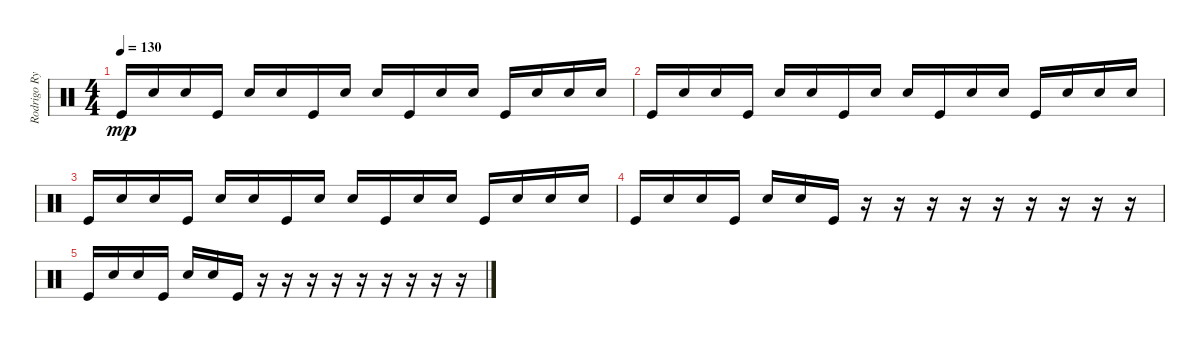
\track ("Rodrigo Rythmics" "Rodrigo Ry") {instrument percussion}
\staff {score}
\articulation defaults
\ts (4 4)
\tempo 130
\clef neutral
\ks c "Kick (hit)".16{dy mp} "Electric Snare (hit)".16 "Electric Snare (hit)".16 "Kick (hit)".16 "Electric Snare (hit)".16 "Electric Snare (hit)".16 "Kick (hit)".16 "Electric Snare (hit)".16 "Electric Snare (hit)".16 "Kick (hit)".16 "Electric Snare (hit)".16 "Electric Snare (hit)".16 "Kick (hit)".16 "Electric Snare (hit)".16 "Electric Snare (hit)".16 "Electric Snare (hit)".16
|
"Kick (hit)".16 "Electric Snare (hit)".16 "Electric Snare (hit)".16 "Kick (hit)".16 "Electric Snare (hit)".16 "Electric Snare (hit)".16 "Kick (hit)".16 "Electric Snare (hit)".16 "Electric Snare (hit)".16 "Kick (hit)".16 "Electric Snare (hit)".16 "Electric Snare (hit)".16 "Kick (hit)".16 "Electric Snare (hit)".16 "Electric Snare (hit)".16 "Electric Snare (hit)".16 |
"Kick (hit)".16 "Electric Snare (hit)".16 "Electric Snare (hit)".16 "Kick (hit)".16 "Electric Snare (hit)".16 "Electric Snare (hit)".16 "Kick (hit)".16 "Electric Snare (hit)".16 "Electric Snare (hit)".16 "Kick (hit)".16 "Electric Snare (hit)".16 "Electric Snare (hit)".16 "Kick (hit)".16 "Electric Snare (hit)".16 "Electric Snare (hit)".16 "Electric Snare (hit)".16 |
"Kick (hit)".16 "Electric Snare (hit)".16 "Electric Snare (hit)".16 "Kick (hit)".16 "Electric Snare (hit)".16 "Electric Snare (hit)".16 "Kick (hit)".16 r.16 r.16 r.16 r.16 r.16 r.16 r.16 r.16 r.16 |
"Kick (hit)".16 "Electric Snare (hit)".16 "Electric Snare (hit)".16 "Kick (hit)".16 "Electric Snare (hit)".16 "Electric Snare (hit)".16 "Kick (hit)".16 r.16 r.16 r.16 r.16 r.16 r.16 r.16 r.16 r.16
